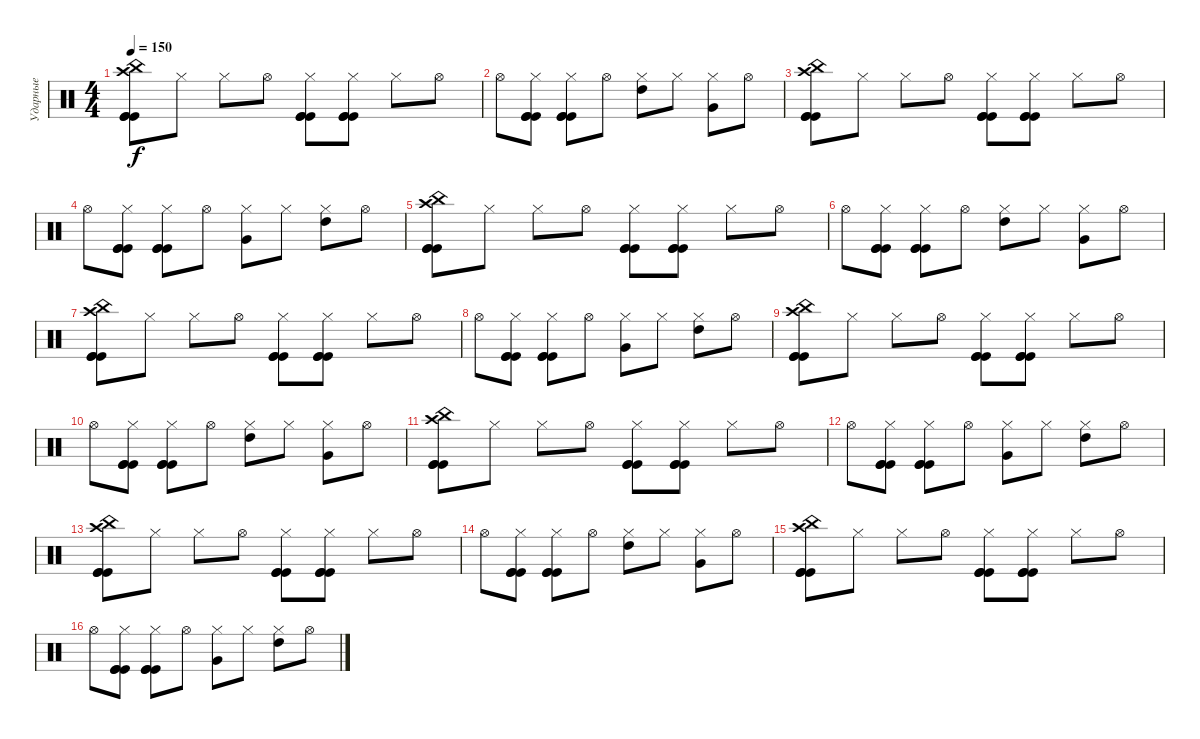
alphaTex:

\track ("Ударные" "Ударные") {instrument percussion}
\staff {score}
\articulation defaults
\ts (4 4)
\tempo 150
\clef neutral
\ks c
("Crash high (hit)" "China (hit)" "Kick (hit)" "Kick (hit)" "Kick (hit)").8{dy f} "Hi-Hat (closed)".8 "Hi-Hat (closed)".8 "Hi-Hat (open)".8 ("Hi-Hat (closed)" "Kick (hit)" "Kick (hit)" "Kick (hit)").8 ("Hi-Hat (closed)" "Kick (hit)" "Kick (hit)" "Kick (hit)").8 "Hi-Hat (closed)".8 "Hi-Hat (open)".8 |
"Hi-Hat (open)".8 ("Hi-Hat (closed)" "Kick (hit)" "Kick (hit)" "Kick (hit)").8 ("Hi-Hat (closed)" "Kick (hit)" "Kick (hit)" "Kick (hit)").8 "Hi-Hat (open)".8 ("Hi-Hat (closed)" "High Tom (hit)").8 "Hi-Hat (closed)".8 ("Hi-Hat (closed)" "Very Low Tom (hit)").8 "Hi-Hat (open)".8 |
("Crash high (hit)" "China (hit)" "Kick (hit)" "Kick (hit)" "Kick (hit)").8 "Hi-Hat (closed)".8 "Hi-Hat (closed)".8 "Hi-Hat (open)".8 ("Hi-Hat (closed)" "Kick (hit)" "Kick (hit)" "Kick (hit)").8 ("Hi-Hat (closed)" "Kick (hit)" "Kick (hit)" "Kick (hit)").8 "Hi-Hat (closed)".8 "Hi-Hat (open)".8 |
"Hi-Hat (open)".8 ("Hi-Hat (closed)" "Kick (hit)" "Kick (hit)" "Kick (hit)").8 ("Hi-Hat (closed)" "Kick (hit)" "Kick (hit)" "Kick (hit)").8 "Hi-Hat (open)".8 ("Hi-Hat (closed)" "Very Low Tom (hit)").8 "Hi-Hat (closed)".8 ("Hi-Hat (closed)" "High Tom (hit)").8 "Hi-Hat (open)".8 |
("Crash high (hit)" "China (hit)" "Kick (hit)" "Kick (hit)" "Kick (hit)").8 "Hi-Hat (closed)".8 "Hi-Hat (closed)".8 "Hi-Hat (open)".8 ("Hi-Hat (closed)" "Kick (hit)" "Kick (hit)" "Kick (hit)").8 ("Hi-Hat (closed)" "Kick (hit)" "Kick (hit)" "Kick (hit)").8 "Hi-Hat (closed)".8 "Hi-Hat (open)".8 |
"Hi-Hat (open)".8 ("Hi-Hat (closed)" "Kick (hit)" "Kick (hit)" "Kick (hit)").8 ("Hi-Hat (closed)" "Kick (hit)" "Kick (hit)" "Kick (hit)").8 "Hi-Hat (open)".8 ("Hi-Hat (closed)" "High Tom (hit)").8 "Hi-Hat (closed)".8 ("Hi-Hat (closed)" "Very Low Tom (hit)").8 "Hi-Hat (open)".8 |
("Crash high (hit)" "China (hit)" "Kick (hit)" "Kick (hit)" "Kick (hit)").8 "Hi-Hat (closed)".8 "Hi-Hat (closed)".8 "Hi-Hat (open)".8 ("Hi-Hat (closed)" "Kick (hit)" "Kick (hit)" "Kick (hit)").8 ("Hi-Hat (closed)" "Kick (hit)" "Kick (hit)" "Kick (hit)").8 "Hi-Hat (closed)".8 "Hi-Hat (open)".8 |
"Hi-Hat (open)".8 ("Hi-Hat (closed)" "Kick (hit)" "Kick (hit)" "Kick (hit)").8 ("Hi-Hat (closed)" "Kick (hit)" "Kick (hit)" "Kick (hit)").8 "Hi-Hat (open)".8 ("Hi-Hat (closed)" "Very Low Tom (hit)").8 "Hi-Hat (closed)".8 ("Hi-Hat (closed)" "High Tom (hit)").8 "Hi-Hat (open)".8 |
("Crash high (hit)" "China (hit)" "Kick (hit)" "Kick (hit)" "Kick (hit)").8 "Hi-Hat (closed)".8 "Hi-Hat (closed)".8 "Hi-Hat (open)".8 ("Hi-Hat (closed)" "Kick (hit)" "Kick (hit)" "Kick (hit)").8 ("Hi-Hat (closed)" "Kick (hit)" "Kick (hit)" "Kick (hit)").8 "Hi-Hat (closed)".8 "Hi-Hat (open)".8 |
"Hi-Hat (open)".8 ("Hi-Hat (closed)" "Kick (hit)" "Kick (hit)" "Kick (hit)").8 ("Hi-Hat (closed)" "Kick (hit)" "Kick (hit)" "Kick (hit)").8 "Hi-Hat (open)".8 ("Hi-Hat (closed)" "High Tom (hit)").8 "Hi-Hat (closed)".8 ("Hi-Hat (closed)" "Very Low Tom (hit)").8 "Hi-Hat (open)".8 |
("Crash high (hit)" "China (hit)" "Kick (hit)" "Kick (hit)" "Kick (hit)").8 "Hi-Hat (closed)".8 "Hi-Hat (closed)".8 "Hi-Hat (open)".8 ("Hi-Hat (closed)" "Kick (hit)" "Kick (hit)" "Kick (hit)").8 ("Hi-Hat (closed)" "Kick (hit)" "Kick (hit)" "Kick (hit)").8 "Hi-Hat (closed)".8 "Hi-Hat (open)".8 |
"Hi-Hat (open)".8 ("Hi-Hat (closed)" "Kick (hit)" "Kick (hit)" "Kick (hit)").8 ("Hi-Hat (closed)" "Kick (hit)" "Kick (hit)" "Kick (hit)").8 "Hi-Hat (open)".8 ("Hi-Hat (closed)" "Very Low Tom (hit)").8 "Hi-Hat (closed)".8 ("Hi-Hat (closed)" "High Tom (hit)").8 "Hi-Hat (open)".8 |
("Crash high (hit)" "China (hit)" "Kick (hit)" "Kick (hit)" "Kick (hit)").8 "Hi-Hat (closed)".8 "Hi-Hat (closed)".8 "Hi-Hat (open)".8 ("Hi-Hat (closed)" "Kick (hit)" "Kick (hit)" "Kick (hit)").8 ("Hi-Hat (closed)" "Kick (hit)" "Kick (hit)" "Kick (hit)").8 "Hi-Hat (closed)".8 "Hi-Hat (open)".8 |
"Hi-Hat (open)".8 ("Hi-Hat (closed)" "Kick (hit)" "Kick (hit)" "Kick (hit)").8 ("Hi-Hat (closed)" "Kick (hit)" "Kick (hit)" "Kick (hit)").8 "Hi-Hat (open)".8 ("Hi-Hat (closed)" "High Tom (hit)").8 "Hi-Hat (closed)".8 ("Hi-Hat (closed)" "Very Low Tom (hit)").8 "Hi-Hat (open)".8 |
("Crash high (hit)" "China (hit)" "Kick (hit)" "Kick (hit)" "Kick (hit)").8 "Hi-Hat (closed)".8 "Hi-Hat (closed)".8 "Hi-Hat (open)".8 ("Hi-Hat (closed)" "Kick (hit)" "Kick (hit)" "Kick (hit)").8 ("Hi-Hat (closed)" "Kick (hit)" "Kick (hit)" "Kick (hit)").8 "Hi-Hat (closed)".8 "Hi-Hat (open)".8 |
"Hi-Hat (open)".8 ("Hi-Hat (closed)" "Kick (hit)" "Kick (hit)" "Kick (hit)").8 ("Hi-Hat (closed)" "Kick (hit)" "Kick (hit)" "Kick (hit)").8 "Hi-Hat (open)".8 ("Hi-Hat (closed)" "Very Low Tom (hit)").8 "Hi-Hat (closed)".8 ("Hi-Hat (closed)" "High Tom (hit)").8 "Hi-Hat (open)".8
